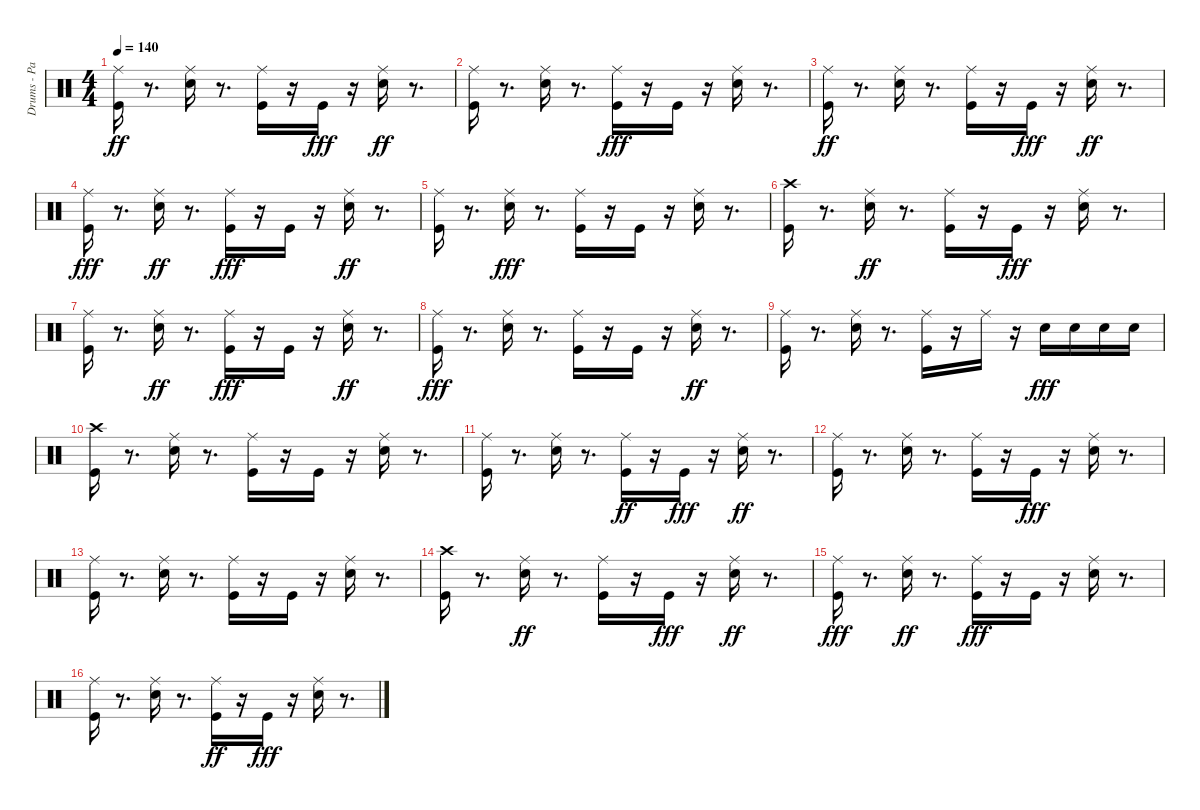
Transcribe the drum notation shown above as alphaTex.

\track ("Drums - Paice" "Drums - Pa") {instrument percussion}
\staff {score}
\articulation defaults
\ts (4 4)
\tempo 140
\clef neutral
\ks c
("Kick (hit)" "Ride (middle)").16{dy ff} r.8{d} ("Snare (hit) 2" "Ride (middle)").16 r.8{d} ("Kick (hit)" "Ride (middle)").16 r.16 "Kick (hit)".16{dy fff} r.16 ("Snare (hit) 2" "Ride (middle)").16{dy ff} r.8{d} |
("Kick (hit)" "Ride (middle)").16 r.8{d} ("Snare (hit) 2" "Ride (middle)").16 r.8{d} ("Ride (middle)" "Kick (hit)").16{dy fff} r.16 "Kick (hit)".16 r.16 ("Ride (middle)" "Snare (hit) 2").16 r.8{d} |
("Kick (hit)" "Ride (middle)").16{dy ff} r.8{d} ("Snare (hit) 2" "Ride (middle)").16 r.8{d} ("Kick (hit)" "Ride (middle)").16 r.16 "Kick (hit)".16{dy fff} r.16 ("Snare (hit) 2" "Ride (middle)").16{dy ff} r.8{d} |
("Ride (middle)" "Kick (hit)").16{dy fff} r.8{d} ("Snare (hit) 2" "Ride (middle)").16{dy ff} r.8{d} ("Ride (middle)" "Kick (hit)").16{dy fff} r.16 "Kick (hit)".16 r.16 ("Snare (hit) 2" "Ride (middle)").16{dy ff} r.8{d} |
("Kick (hit)" "Ride (middle)").16 r.8{d} ("Ride (middle)" "Snare (hit) 2").16{dy fff} r.8{d} ("Ride (middle)" "Kick (hit)").16 r.16 "Kick (hit)".16 r.16 ("Ride (middle)" "Snare (hit) 2").16 r.8{d} |
("Kick (hit)" "Crash high (hit)").16 r.8{d} ("Snare (hit) 2" "Ride (middle)").16{dy ff} r.8{d} ("Kick (hit)" "Ride (middle)").16 r.16 "Kick (hit)".16{dy fff} r.16 ("Ride (middle)" "Snare (hit) 2").16 r.8{d} |
("Ride (middle)" "Kick (hit)").16 r.8{d} ("Snare (hit) 2" "Ride (middle)").16{dy ff} r.8{d} ("Ride (middle)" "Kick (hit)").16{dy fff} r.16 "Kick (hit)".16 r.16 ("Snare (hit) 2" "Ride (middle)").16{dy ff} r.8{d} |
("Ride (middle)" "Kick (hit)").16{dy fff} r.8{d} ("Ride (middle)" "Snare (hit) 2").16 r.8{d} ("Ride (middle)" "Kick (hit)").16 r.16 "Kick (hit)".16 r.16 ("Snare (hit) 2" "Ride (middle)").16{dy ff} r.8{d} |
("Kick (hit)" "Ride (middle)").16 r.8{d} ("Snare (hit) 2" "Ride (middle)").16 r.8{d} ("Kick (hit)" "Ride (middle)").16 r.16 "Ride (middle)".16 r.16 "Snare (hit) 2".16{dy fff} "Snare (hit) 2".16 "Snare (hit) 2".16 "Snare (hit) 2".16 |
("Crash high (hit)" "Kick (hit)").16 r.8{d} ("Ride (middle)" "Snare (hit) 2").16 r.8{d} ("Ride (middle)" "Kick (hit)").16 r.16 "Kick (hit)".16 r.16 ("Ride (middle)" "Snare (hit) 2").16 r.8{d} |
("Ride (middle)" "Kick (hit)").16 r.8{d} ("Ride (middle)" "Snare (hit) 2").16 r.8{d} ("Kick (hit)" "Ride (middle)").16{dy ff} r.16 "Kick (hit)".16{dy fff} r.16 ("Snare (hit) 2" "Ride (middle)").16{dy ff} r.8{d} |
("Kick (hit)" "Ride (middle)").16 r.8{d} ("Snare (hit) 2" "Ride (middle)").16 r.8{d} ("Kick (hit)" "Ride (middle)").16 r.16 "Kick (hit)".16{dy fff} r.16 ("Ride (middle)" "Snare (hit) 2").16 r.8{d} |
("Ride (middle)" "Kick (hit)").16 r.8{d} ("Ride (middle)" "Snare (hit) 2").16 r.8{d} ("Ride (middle)" "Kick (hit)").16 r.16 "Kick (hit)".16 r.16 ("Ride (middle)" "Snare (hit) 2").16 r.8{d} |
("Crash high (hit)" "Kick (hit)").16 r.8{d} ("Snare (hit) 2" "Ride (middle)").16{dy ff} r.8{d} ("Kick (hit)" "Ride (middle)").16 r.16 "Kick (hit)".16{dy fff} r.16 ("Snare (hit) 2" "Ride (middle)").16{dy ff} r.8{d} |
("Ride (middle)" "Kick (hit)").16{dy fff} r.8{d} ("Snare (hit) 2" "Ride (middle)").16{dy ff} r.8{d} ("Ride (middle)" "Kick (hit)").16{dy fff} r.16 "Kick (hit)".16 r.16 ("Ride (middle)" "Snare (hit) 2").16 r.8{d} |
("Ride (middle)" "Kick (hit)").16 r.8{d} ("Ride (middle)" "Snare (hit) 2").16 r.8{d} ("Kick (hit)" "Ride (middle)").16{dy ff} r.16 "Kick (hit)".16{dy fff} r.16 ("Ride (middle)" "Snare (hit) 2").16 r.8{d}
